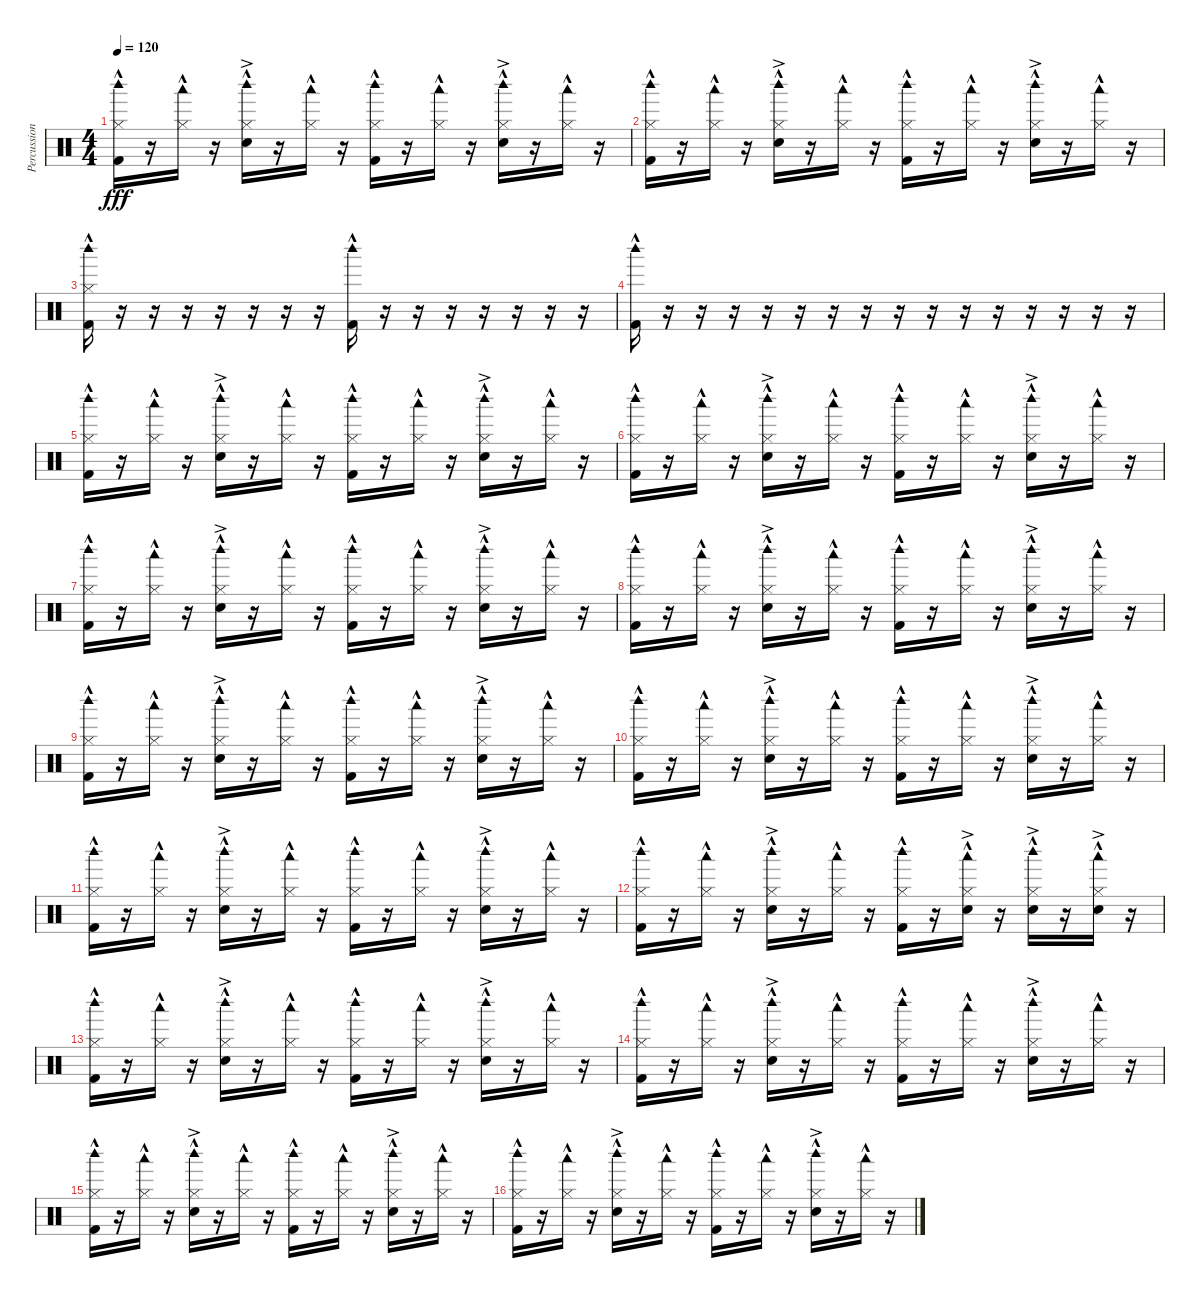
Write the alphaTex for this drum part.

\track ("Percussion" "Percussion") {instrument percussion}
\staff {score}
\articulation defaults
\ts (4 4)
\tempo 120
\clef neutral
\ks c
("Hi-Hat (closed)"{hac} "Woodblock high (hit)"{hac} "Kick (hit) 2"{hac}).16{dy fff} r.16 ("Hi-Hat (closed)"{hac} "Woodblock low (hit)"{hac}).16 r.16 ("Hi-Hat (closed)"{hac} "Snare (hit) 2"{ac} "Woodblock high (hit)"{hac}).16 r.16 ("Hi-Hat (closed)"{hac} "Woodblock low (hit)"{hac}).16 r.16 ("Hi-Hat (closed)"{hac} "Woodblock high (hit)"{hac} "Kick (hit) 2"{hac}).16 r.16 ("Hi-Hat (closed)"{hac} "Woodblock low (hit)"{hac}).16 r.16 ("Hi-Hat (closed)"{hac} "Snare (hit) 2"{ac} "Woodblock high (hit)"{hac}).16 r.16 ("Hi-Hat (closed)"{hac} "Woodblock low (hit)"{hac}).16 r.16 |
("Hi-Hat (closed)"{hac} "Woodblock high (hit)"{hac} "Kick (hit) 2"{hac}).16 r.16 ("Hi-Hat (closed)"{hac} "Woodblock low (hit)"{hac}).16 r.16 ("Hi-Hat (closed)"{hac} "Snare (hit) 2"{ac} "Woodblock high (hit)"{hac}).16 r.16 ("Hi-Hat (closed)"{hac} "Woodblock low (hit)"{hac}).16 r.16 ("Hi-Hat (closed)"{hac} "Woodblock high (hit)"{hac} "Kick (hit) 2"{hac}).16 r.16 ("Hi-Hat (closed)"{hac} "Woodblock low (hit)"{hac}).16 r.16 ("Hi-Hat (closed)"{hac} "Snare (hit) 2"{ac} "Woodblock high (hit)"{hac}).16 r.16 ("Hi-Hat (closed)"{hac} "Woodblock low (hit)"{hac}).16 r.16 |
("Hi-Hat (closed)"{hac} "Woodblock high (hit)"{hac} "Kick (hit) 2"{hac}).16 r.16 r.16 r.16 r.16 r.16 r.16 r.16 ("Woodblock high (hit)"{hac} "Kick (hit) 2"{hac}).16 r.16 r.16 r.16 r.16 r.16 r.16 r.16 |
("Woodblock high (hit)"{hac} "Kick (hit) 2"{hac}).16 r.16 r.16 r.16 r.16 r.16 r.16 r.16 r.16 r.16 r.16 r.16 r.16 r.16 r.16 r.16 |
("Hi-Hat (closed)"{hac} "Woodblock high (hit)"{hac} "Kick (hit) 2"{hac}).16 r.16 ("Hi-Hat (closed)"{hac} "Woodblock low (hit)"{hac}).16 r.16 ("Hi-Hat (closed)"{hac} "Snare (hit) 2"{ac} "Woodblock high (hit)"{hac}).16 r.16 ("Hi-Hat (closed)"{hac} "Woodblock low (hit)"{hac}).16 r.16 ("Hi-Hat (closed)"{hac} "Woodblock high (hit)"{hac} "Kick (hit) 2"{hac}).16 r.16 ("Hi-Hat (closed)"{hac} "Woodblock low (hit)"{hac}).16 r.16 ("Hi-Hat (closed)"{hac} "Snare (hit) 2"{ac} "Woodblock high (hit)"{hac}).16 r.16 ("Hi-Hat (closed)"{hac} "Woodblock low (hit)"{hac}).16 r.16 |
("Hi-Hat (closed)"{hac} "Woodblock high (hit)"{hac} "Kick (hit) 2"{hac}).16 r.16 ("Hi-Hat (closed)"{hac} "Woodblock low (hit)"{hac}).16 r.16 ("Hi-Hat (closed)"{hac} "Snare (hit) 2"{ac} "Woodblock high (hit)"{hac}).16 r.16 ("Hi-Hat (closed)"{hac} "Woodblock low (hit)"{hac}).16 r.16 ("Hi-Hat (closed)"{hac} "Woodblock high (hit)"{hac} "Kick (hit) 2"{hac}).16 r.16 ("Hi-Hat (closed)"{hac} "Woodblock low (hit)"{hac}).16 r.16 ("Hi-Hat (closed)"{hac} "Snare (hit) 2"{ac} "Woodblock high (hit)"{hac}).16 r.16 ("Hi-Hat (closed)"{hac} "Woodblock low (hit)"{hac}).16 r.16 |
("Hi-Hat (closed)"{hac} "Woodblock high (hit)"{hac} "Kick (hit) 2"{hac}).16 r.16 ("Hi-Hat (closed)"{hac} "Woodblock low (hit)"{hac}).16 r.16 ("Hi-Hat (closed)"{hac} "Snare (hit) 2"{ac} "Woodblock high (hit)"{hac}).16 r.16 ("Hi-Hat (closed)"{hac} "Woodblock low (hit)"{hac}).16 r.16 ("Hi-Hat (closed)"{hac} "Woodblock high (hit)"{hac} "Kick (hit) 2"{hac}).16 r.16 ("Hi-Hat (closed)"{hac} "Woodblock low (hit)"{hac}).16 r.16 ("Hi-Hat (closed)"{hac} "Snare (hit) 2"{ac} "Woodblock high (hit)"{hac}).16 r.16 ("Hi-Hat (closed)"{hac} "Woodblock low (hit)"{hac}).16 r.16 |
("Hi-Hat (closed)"{hac} "Woodblock high (hit)"{hac} "Kick (hit) 2"{hac}).16 r.16 ("Hi-Hat (closed)"{hac} "Woodblock low (hit)"{hac}).16 r.16 ("Hi-Hat (closed)"{hac} "Snare (hit) 2"{ac} "Woodblock high (hit)"{hac}).16 r.16 ("Hi-Hat (closed)"{hac} "Woodblock low (hit)"{hac}).16 r.16 ("Hi-Hat (closed)"{hac} "Woodblock high (hit)"{hac} "Kick (hit) 2"{hac}).16 r.16 ("Hi-Hat (closed)"{hac} "Woodblock low (hit)"{hac}).16 r.16 ("Hi-Hat (closed)"{hac} "Snare (hit) 2"{ac} "Woodblock high (hit)"{hac}).16 r.16 ("Hi-Hat (closed)"{hac} "Woodblock low (hit)"{hac}).16 r.16 |
("Hi-Hat (closed)"{hac} "Woodblock high (hit)"{hac} "Kick (hit) 2"{hac}).16 r.16 ("Hi-Hat (closed)"{hac} "Woodblock low (hit)"{hac}).16 r.16 ("Hi-Hat (closed)"{hac} "Snare (hit) 2"{ac} "Woodblock high (hit)"{hac}).16 r.16 ("Hi-Hat (closed)"{hac} "Woodblock low (hit)"{hac}).16 r.16 ("Hi-Hat (closed)"{hac} "Woodblock high (hit)"{hac} "Kick (hit) 2"{hac}).16 r.16 ("Hi-Hat (closed)"{hac} "Woodblock low (hit)"{hac}).16 r.16 ("Hi-Hat (closed)"{hac} "Snare (hit) 2"{ac} "Woodblock high (hit)"{hac}).16 r.16 ("Hi-Hat (closed)"{hac} "Woodblock low (hit)"{hac}).16 r.16 |
("Hi-Hat (closed)"{hac} "Woodblock high (hit)"{hac} "Kick (hit) 2"{hac}).16 r.16 ("Hi-Hat (closed)"{hac} "Woodblock low (hit)"{hac}).16 r.16 ("Hi-Hat (closed)"{hac} "Snare (hit) 2"{ac} "Woodblock high (hit)"{hac}).16 r.16 ("Hi-Hat (closed)"{hac} "Woodblock low (hit)"{hac}).16 r.16 ("Hi-Hat (closed)"{hac} "Woodblock high (hit)"{hac} "Kick (hit) 2"{hac}).16 r.16 ("Hi-Hat (closed)"{hac} "Woodblock low (hit)"{hac}).16 r.16 ("Hi-Hat (closed)"{hac} "Snare (hit) 2"{ac} "Woodblock high (hit)"{hac}).16 r.16 ("Hi-Hat (closed)"{hac} "Woodblock low (hit)"{hac}).16 r.16 |
("Hi-Hat (closed)"{hac} "Woodblock high (hit)"{hac} "Kick (hit) 2"{hac}).16 r.16 ("Hi-Hat (closed)"{hac} "Woodblock low (hit)"{hac}).16 r.16 ("Hi-Hat (closed)"{hac} "Snare (hit) 2"{ac} "Woodblock high (hit)"{hac}).16 r.16 ("Hi-Hat (closed)"{hac} "Woodblock low (hit)"{hac}).16 r.16 ("Hi-Hat (closed)"{hac} "Woodblock high (hit)"{hac} "Kick (hit) 2"{hac}).16 r.16 ("Hi-Hat (closed)"{hac} "Woodblock low (hit)"{hac}).16 r.16 ("Hi-Hat (closed)"{hac} "Snare (hit) 2"{ac} "Woodblock high (hit)"{hac}).16 r.16 ("Hi-Hat (closed)"{hac} "Woodblock low (hit)"{hac}).16 r.16 |
("Hi-Hat (closed)"{hac} "Woodblock high (hit)"{hac} "Kick (hit) 2"{hac}).16 r.16 ("Hi-Hat (closed)"{hac} "Woodblock low (hit)"{hac}).16 r.16 ("Hi-Hat (closed)"{hac} "Snare (hit) 2"{ac} "Woodblock high (hit)"{hac}).16 r.16 ("Hi-Hat (closed)"{hac} "Woodblock low (hit)"{hac}).16 r.16 ("Hi-Hat (closed)"{hac} "Woodblock high (hit)"{hac} "Kick (hit) 2"{hac}).16 r.16 ("Hi-Hat (closed)"{hac} "Snare (hit) 2"{ac} "Woodblock low (hit)"{hac}).16 r.16 ("Hi-Hat (closed)"{hac} "Snare (hit) 2"{ac} "Woodblock high (hit)"{hac}).16 r.16 ("Hi-Hat (closed)"{hac} "Snare (hit) 2"{ac} "Woodblock low (hit)"{hac}).16 r.16 |
("Hi-Hat (closed)"{hac} "Woodblock high (hit)"{hac} "Kick (hit) 2"{hac}).16 r.16 ("Hi-Hat (closed)"{hac} "Woodblock low (hit)"{hac}).16 r.16 ("Hi-Hat (closed)"{hac} "Snare (hit) 2"{ac} "Woodblock high (hit)"{hac}).16 r.16 ("Hi-Hat (closed)"{hac} "Woodblock low (hit)"{hac}).16 r.16 ("Hi-Hat (closed)"{hac} "Woodblock high (hit)"{hac} "Kick (hit) 2"{hac}).16 r.16 ("Hi-Hat (closed)"{hac} "Woodblock low (hit)"{hac}).16 r.16 ("Hi-Hat (closed)"{hac} "Snare (hit) 2"{ac} "Woodblock high (hit)"{hac}).16 r.16 ("Hi-Hat (closed)"{hac} "Woodblock low (hit)"{hac}).16 r.16 |
("Hi-Hat (closed)"{hac} "Woodblock high (hit)"{hac} "Kick (hit) 2"{hac}).16 r.16 ("Hi-Hat (closed)"{hac} "Woodblock low (hit)"{hac}).16 r.16 ("Hi-Hat (closed)"{hac} "Snare (hit) 2"{ac} "Woodblock high (hit)"{hac}).16 r.16 ("Hi-Hat (closed)"{hac} "Woodblock low (hit)"{hac}).16 r.16 ("Hi-Hat (closed)"{hac} "Woodblock high (hit)"{hac} "Kick (hit) 2"{hac}).16 r.16 ("Hi-Hat (closed)"{hac} "Woodblock low (hit)"{hac}).16 r.16 ("Hi-Hat (closed)"{hac} "Snare (hit) 2"{ac} "Woodblock high (hit)"{hac}).16 r.16 ("Hi-Hat (closed)"{hac} "Woodblock low (hit)"{hac}).16 r.16 |
("Hi-Hat (closed)"{hac} "Woodblock high (hit)"{hac} "Kick (hit) 2"{hac}).16 r.16 ("Hi-Hat (closed)"{hac} "Woodblock low (hit)"{hac}).16 r.16 ("Hi-Hat (closed)"{hac} "Snare (hit) 2"{ac} "Woodblock high (hit)"{hac}).16 r.16 ("Hi-Hat (closed)"{hac} "Woodblock low (hit)"{hac}).16 r.16 ("Hi-Hat (closed)"{hac} "Woodblock high (hit)"{hac} "Kick (hit) 2"{hac}).16 r.16 ("Hi-Hat (closed)"{hac} "Woodblock low (hit)"{hac}).16 r.16 ("Hi-Hat (closed)"{hac} "Snare (hit) 2"{ac} "Woodblock high (hit)"{hac}).16 r.16 ("Hi-Hat (closed)"{hac} "Woodblock low (hit)"{hac}).16 r.16 |
("Hi-Hat (closed)"{hac} "Woodblock high (hit)"{hac} "Kick (hit) 2"{hac}).16 r.16 ("Hi-Hat (closed)"{hac} "Woodblock low (hit)"{hac}).16 r.16 ("Hi-Hat (closed)"{hac} "Snare (hit) 2"{ac} "Woodblock high (hit)"{hac}).16 r.16 ("Hi-Hat (closed)"{hac} "Woodblock low (hit)"{hac}).16 r.16 ("Hi-Hat (closed)"{hac} "Woodblock high (hit)"{hac} "Kick (hit) 2"{hac}).16 r.16 ("Hi-Hat (closed)"{hac} "Woodblock low (hit)"{hac}).16 r.16 ("Hi-Hat (closed)"{hac} "Snare (hit) 2"{ac} "Woodblock high (hit)"{hac}).16 r.16 ("Hi-Hat (closed)"{hac} "Woodblock low (hit)"{hac}).16 r.16
